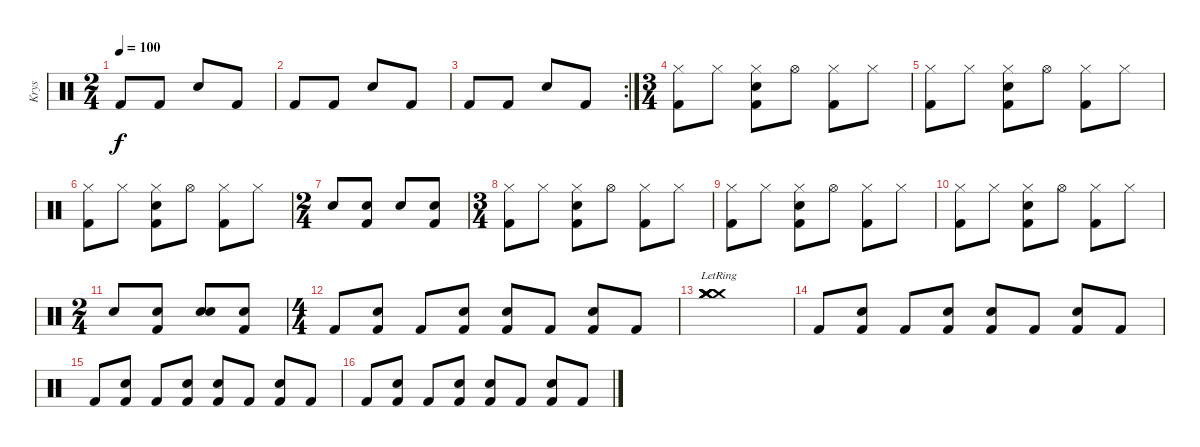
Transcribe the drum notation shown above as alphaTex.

\track ("Krys" "Krys") {instrument percussion}
\staff {score}
\articulation defaults
\ts (2 4)
\tempo 100
\clef neutral
\ks c "Kick (hit) 2".8{dy f} "Kick (hit) 2".8 "Snare (hit) 2".8 "Kick (hit) 2".8
|
"Kick (hit) 2".8 "Kick (hit) 2".8 "Snare (hit) 2".8 "Kick (hit) 2".8 |
\rc 2 "Kick (hit) 2".8 "Kick (hit) 2".8 "Snare (hit) 2".8 "Kick (hit) 2".8
|
\ts (3 4)
("Hi-Hat (closed)" "Kick (hit) 2").8 "Hi-Hat (closed)".8 ("Snare (hit) 2" "Hi-Hat (closed)" "Kick (hit) 2").8 "Hi-Hat (open)".8 ("Hi-Hat (closed)" "Kick (hit) 2").8 "Hi-Hat (closed)".8 |
("Hi-Hat (closed)" "Kick (hit) 2").8 "Hi-Hat (closed)".8 ("Snare (hit) 2" "Hi-Hat (closed)" "Kick (hit) 2").8 "Hi-Hat (open)".8 ("Hi-Hat (closed)" "Kick (hit) 2").8 "Hi-Hat (closed)".8 |
("Hi-Hat (closed)" "Kick (hit) 2").8 "Hi-Hat (closed)".8 ("Snare (hit) 2" "Hi-Hat (closed)" "Kick (hit) 2").8 "Hi-Hat (open)".8 ("Hi-Hat (closed)" "Kick (hit) 2").8 "Hi-Hat (closed)".8 |
\ts (2 4)
"Snare (hit) 2".8 ("Snare (hit) 2" "Kick (hit) 2").8 "Snare (hit) 2".8 ("Snare (hit) 2" "Kick (hit) 2").8 |
\ts (3 4)
("Hi-Hat (closed)" "Kick (hit) 2").8 "Hi-Hat (closed)".8 ("Snare (hit) 2" "Hi-Hat (closed)" "Kick (hit) 2").8 "Hi-Hat (open)".8 ("Hi-Hat (closed)" "Kick (hit) 2").8 "Hi-Hat (closed)".8 |
("Hi-Hat (closed)" "Kick (hit) 2").8 "Hi-Hat (closed)".8 ("Snare (hit) 2" "Hi-Hat (closed)" "Kick (hit) 2").8 "Hi-Hat (open)".8 ("Hi-Hat (closed)" "Kick (hit) 2").8 "Hi-Hat (closed)".8 |
("Hi-Hat (closed)" "Kick (hit) 2").8 "Hi-Hat (closed)".8 ("Snare (hit) 2" "Hi-Hat (closed)" "Kick (hit) 2").8 "Hi-Hat (open)".8 ("Hi-Hat (closed)" "Kick (hit) 2").8 "Hi-Hat (closed)".8 |
\ts (2 4)
"Snare (hit) 2".8 ("Snare (hit) 2" "Kick (hit) 2").8 ("Snare (hit) 2" "Snare (hit) 2").8 ("Snare (hit) 2" "Kick (hit) 2").8 |
\ts (4 4)
"Kick (hit) 2".8 ("Snare (hit) 2" "Kick (hit) 2").8 "Kick (hit) 2".8 ("Snare (hit) 2" "Kick (hit) 2").8 ("Snare (hit) 2" "Kick (hit) 2").8 "Kick (hit) 2".8 ("Snare (hit) 2" "Kick (hit) 2").8 "Kick (hit) 2".8 |
("Crash medium (hit)"{lr} "Crash medium (hit)"{lr} "Crash medium (hit)"{lr} "Crash medium (hit)"{lr} "Crash medium (hit)"{lr} "Crash medium (hit)"{lr}).1 |
"Kick (hit) 2".8 ("Snare (hit) 2" "Kick (hit) 2").8 "Kick (hit) 2".8 ("Snare (hit) 2" "Kick (hit) 2").8 ("Snare (hit) 2" "Kick (hit) 2").8 "Kick (hit) 2".8 ("Snare (hit) 2" "Kick (hit) 2").8 "Kick (hit) 2".8 |
"Kick (hit) 2".8 ("Snare (hit) 2" "Kick (hit) 2").8 "Kick (hit) 2".8 ("Snare (hit) 2" "Kick (hit) 2").8 ("Snare (hit) 2" "Kick (hit) 2").8 "Kick (hit) 2".8 ("Snare (hit) 2" "Kick (hit) 2").8 "Kick (hit) 2".8 |
"Kick (hit) 2".8 ("Snare (hit) 2" "Kick (hit) 2").8 "Kick (hit) 2".8 ("Snare (hit) 2" "Kick (hit) 2").8 ("Snare (hit) 2" "Kick (hit) 2").8 "Kick (hit) 2".8 ("Snare (hit) 2" "Kick (hit) 2").8 "Kick (hit) 2".8
